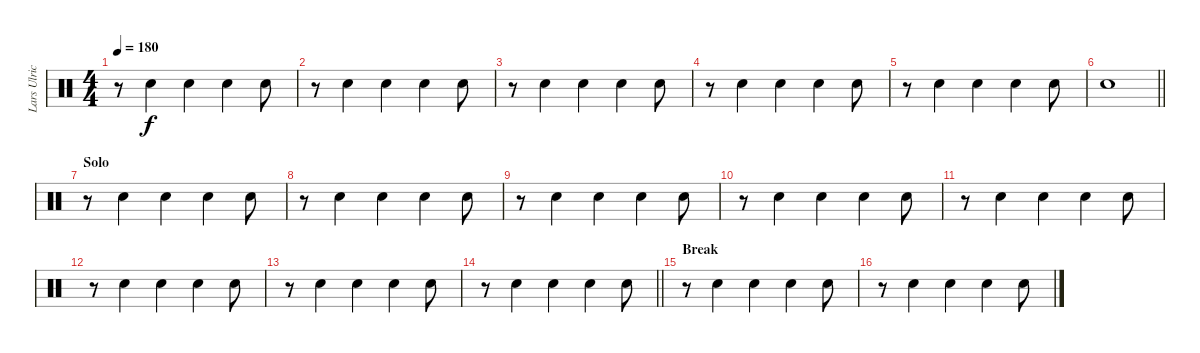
\track ("Lars Ulrich" "Lars Ulric") {instrument percussion}
\staff {score}
\articulation defaults
\ts (4 4)
\tempo 180
\clef neutral
\ks c
r.8{dy f} "Snare (hit) 2".4 "Snare (hit) 2".4 "Snare (hit) 2".4 "Snare (hit) 2".8 |
r.8 "Snare (hit) 2".4 "Snare (hit) 2".4 "Snare (hit) 2".4 "Snare (hit) 2".8 |
r.8 "Snare (hit) 2".4 "Snare (hit) 2".4 "Snare (hit) 2".4 "Snare (hit) 2".8 |
r.8 "Snare (hit) 2".4 "Snare (hit) 2".4 "Snare (hit) 2".4 "Snare (hit) 2".8 |
r.8 "Snare (hit) 2".4 "Snare (hit) 2".4 "Snare (hit) 2".4 "Snare (hit) 2".8 |
\barLineRight lightlight "Snare (hit) 2".1
|
\section ("" "Solo")
r.8 "Snare (hit) 2".4 "Snare (hit) 2".4 "Snare (hit) 2".4 "Snare (hit) 2".8 |
r.8 "Snare (hit) 2".4 "Snare (hit) 2".4 "Snare (hit) 2".4 "Snare (hit) 2".8 |
r.8 "Snare (hit) 2".4 "Snare (hit) 2".4 "Snare (hit) 2".4 "Snare (hit) 2".8 |
r.8 "Snare (hit) 2".4 "Snare (hit) 2".4 "Snare (hit) 2".4 "Snare (hit) 2".8 |
r.8 "Snare (hit) 2".4 "Snare (hit) 2".4 "Snare (hit) 2".4 "Snare (hit) 2".8 |
r.8 "Snare (hit) 2".4 "Snare (hit) 2".4 "Snare (hit) 2".4 "Snare (hit) 2".8 |
r.8 "Snare (hit) 2".4 "Snare (hit) 2".4 "Snare (hit) 2".4 "Snare (hit) 2".8 |
\barLineRight lightlight
r.8 "Snare (hit) 2".4 "Snare (hit) 2".4 "Snare (hit) 2".4 "Snare (hit) 2".8 |
\section ("" "Break")
r.8 "Snare (hit) 2".4 "Snare (hit) 2".4 "Snare (hit) 2".4 "Snare (hit) 2".8 |
r.8 "Snare (hit) 2".4 "Snare (hit) 2".4 "Snare (hit) 2".4 "Snare (hit) 2".8
